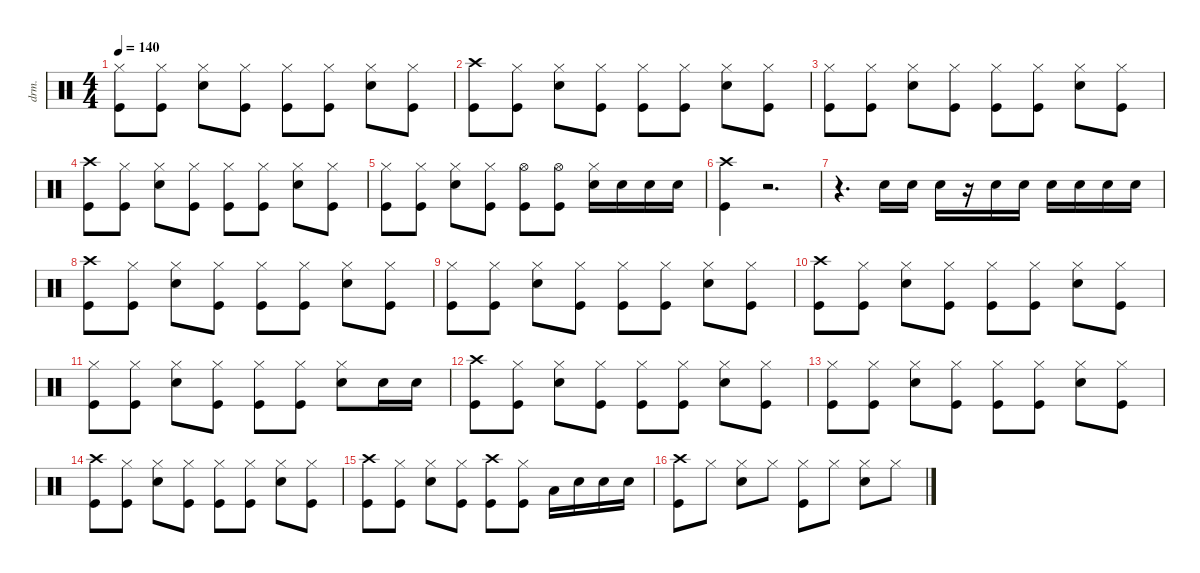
\defaultSystemsLayout 4
\hideDynamics
\bracketExtendMode nobrackets
\otherSystemsTrackNameOrientation horizontal
\track ("Drums" "drm.") {instrument percussion}
\staff {score}
\articulation defaults
\ts (4 4)
\tempo 140
\clef neutral
\ks c
("Kick (hit)" "Hi-Hat (closed)").8{dy f} ("Kick (hit)" "Hi-Hat (closed)").8 ("Snare (hit) 2" "Hi-Hat (closed)").8 ("Kick (hit)" "Hi-Hat (closed)").8 ("Kick (hit)" "Hi-Hat (closed)").8 ("Kick (hit)" "Hi-Hat (closed)").8 ("Snare (hit) 2" "Hi-Hat (closed)").8 ("Kick (hit)" "Hi-Hat (closed)").8 |
("Crash high (hit)" "Kick (hit)").8 ("Kick (hit)" "Hi-Hat (closed)").8 ("Snare (hit) 2" "Hi-Hat (closed)").8 ("Kick (hit)" "Hi-Hat (closed)").8 ("Kick (hit)" "Hi-Hat (closed)").8 ("Kick (hit)" "Hi-Hat (closed)").8 ("Snare (hit) 2" "Hi-Hat (closed)").8 ("Kick (hit)" "Hi-Hat (closed)").8 |
("Kick (hit)" "Hi-Hat (closed)").8 ("Kick (hit)" "Hi-Hat (closed)").8 ("Snare (hit) 2" "Hi-Hat (closed)").8 ("Kick (hit)" "Hi-Hat (closed)").8 ("Kick (hit)" "Hi-Hat (closed)").8 ("Kick (hit)" "Hi-Hat (closed)").8 ("Snare (hit) 2" "Hi-Hat (closed)").8 ("Kick (hit)" "Hi-Hat (closed)").8 |
("Crash high (hit)" "Kick (hit)").8 ("Kick (hit)" "Hi-Hat (closed)").8 ("Snare (hit) 2" "Hi-Hat (closed)").8 ("Kick (hit)" "Hi-Hat (closed)").8 ("Kick (hit)" "Hi-Hat (closed)").8 ("Kick (hit)" "Hi-Hat (closed)").8 ("Snare (hit) 2" "Hi-Hat (closed)").8 ("Kick (hit)" "Hi-Hat (closed)").8 |
("Hi-Hat (closed)" "Kick (hit)").8 ("Kick (hit)" "Hi-Hat (closed)").8 ("Snare (hit) 2" "Hi-Hat (closed)").8 ("Kick (hit)" "Hi-Hat (closed)").8 ("Hi-Hat (open)" "Kick (hit)").8 ("Hi-Hat (open)" "Kick (hit)").8 ("Hi-Hat (closed)" "Snare (hit) 2").16 "Snare (hit) 2".16 "Snare (hit) 2".16 "Snare (hit) 2".16 |
("Kick (hit)" "Crash high (hit)").4 r.2{d} |
r.4{d} "Snare (hit) 2".16 "Snare (hit) 2".16 "Snare (hit) 2".16 r.16 "Snare (hit) 2".16 "Snare (hit) 2".16 "Snare (hit) 2".16 "Snare (hit) 2".16 "Snare (hit) 2".16 "Snare (hit) 2".16 |
("Crash high (hit)" "Kick (hit)").8 ("Kick (hit)" "Hi-Hat (closed)").8 ("Snare (hit) 2" "Hi-Hat (closed)").8 ("Kick (hit)" "Hi-Hat (closed)").8 ("Kick (hit)" "Hi-Hat (closed)").8 ("Kick (hit)" "Hi-Hat (closed)").8 ("Snare (hit) 2" "Hi-Hat (closed)").8 ("Kick (hit)" "Hi-Hat (closed)").8 |
("Kick (hit)" "Hi-Hat (closed)").8 ("Kick (hit)" "Hi-Hat (closed)").8 ("Snare (hit) 2" "Hi-Hat (closed)").8 ("Kick (hit)" "Hi-Hat (closed)").8 ("Kick (hit)" "Hi-Hat (closed)").8 ("Kick (hit)" "Hi-Hat (closed)").8 ("Snare (hit) 2" "Hi-Hat (closed)").8 ("Kick (hit)" "Hi-Hat (closed)").8 |
("Crash high (hit)" "Kick (hit)").8 ("Kick (hit)" "Hi-Hat (closed)").8 ("Snare (hit) 2" "Hi-Hat (closed)").8 ("Kick (hit)" "Hi-Hat (closed)").8 ("Kick (hit)" "Hi-Hat (closed)").8 ("Kick (hit)" "Hi-Hat (closed)").8 ("Snare (hit) 2" "Hi-Hat (closed)").8 ("Kick (hit)" "Hi-Hat (closed)").8 |
("Kick (hit)" "Hi-Hat (closed)").8 ("Kick (hit)" "Hi-Hat (closed)").8 ("Snare (hit) 2" "Hi-Hat (closed)").8 ("Kick (hit)" "Hi-Hat (closed)").8 ("Kick (hit)" "Hi-Hat (closed)").8 ("Kick (hit)" "Hi-Hat (closed)").8 ("Snare (hit) 2" "Hi-Hat (closed)").8 "Snare (hit) 2".16 "Snare (hit) 2".16 |
("Crash high (hit)" "Kick (hit)").8 ("Kick (hit)" "Hi-Hat (closed)").8 ("Snare (hit) 2" "Hi-Hat (closed)").8 ("Kick (hit)" "Hi-Hat (closed)").8 ("Kick (hit)" "Hi-Hat (closed)").8 ("Kick (hit)" "Hi-Hat (closed)").8 ("Snare (hit) 2" "Hi-Hat (closed)").8 ("Kick (hit)" "Hi-Hat (closed)").8 |
("Kick (hit)" "Hi-Hat (closed)").8 ("Kick (hit)" "Hi-Hat (closed)").8 ("Snare (hit) 2" "Hi-Hat (closed)").8 ("Kick (hit)" "Hi-Hat (closed)").8 ("Kick (hit)" "Hi-Hat (closed)").8 ("Kick (hit)" "Hi-Hat (closed)").8 ("Snare (hit) 2" "Hi-Hat (closed)").8 ("Kick (hit)" "Hi-Hat (closed)").8 |
("Crash high (hit)" "Kick (hit)").8 ("Kick (hit)" "Hi-Hat (closed)").8 ("Snare (hit) 2" "Hi-Hat (closed)").8 ("Kick (hit)" "Hi-Hat (closed)").8 ("Kick (hit)" "Hi-Hat (closed)").8 ("Kick (hit)" "Hi-Hat (closed)").8 ("Snare (hit) 2" "Hi-Hat (closed)").8 ("Kick (hit)" "Hi-Hat (closed)").8 |
("Crash high (hit)" "Kick (hit)").8 ("Kick (hit)" "Hi-Hat (closed)").8 ("Snare (hit) 2" "Hi-Hat (closed)").8 ("Kick (hit)" "Hi-Hat (closed)").8 ("Crash high (hit)" "Kick (hit)").8 ("Kick (hit)" "Hi-Hat (closed)").8 "Low Tom (hit)".16 "Snare (hit) 2".16 "Snare (hit) 2".16 "Snare (hit) 2".16 |
("Crash high (hit)" "Kick (hit)").8 "Hi-Hat (closed)".8 ("Snare (hit) 2" "Hi-Hat (closed)").8 "Hi-Hat (closed)".8 ("Kick (hit)" "Hi-Hat (closed)").8 "Hi-Hat (closed)".8 ("Snare (hit) 2" "Hi-Hat (closed)").8 "Hi-Hat (closed)".8
